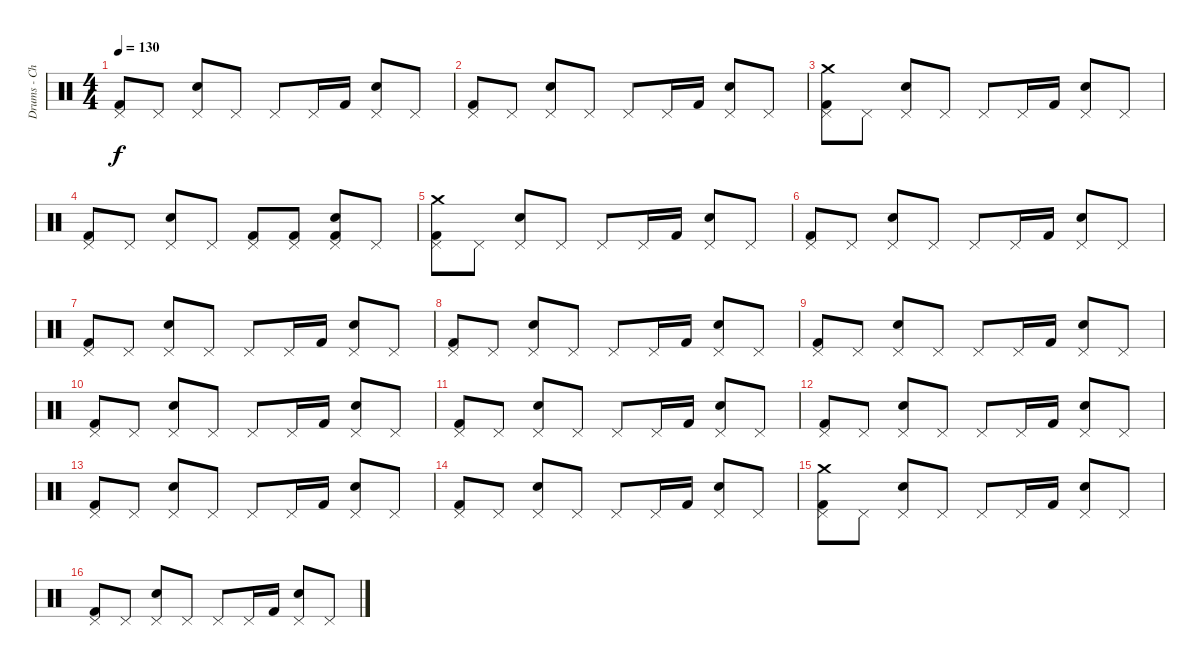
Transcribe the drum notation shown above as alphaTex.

\track ("Drums - Christoph Schneider" "Drums - Ch") {instrument percussion}
\staff {score}
\articulation defaults
\ts (4 4)
\tempo 130
\clef neutral
\ks c
("Pedal Hi-Hat (hit)" "Kick (hit) 2").8{dy f} "Pedal Hi-Hat (hit)".8 ("Pedal Hi-Hat (hit)" "Electric Snare (hit)").8 "Pedal Hi-Hat (hit)".8 "Pedal Hi-Hat (hit)".8 "Pedal Hi-Hat (hit)".16 "Kick (hit) 2".16 ("Pedal Hi-Hat (hit)" "Electric Snare (hit)").8 "Pedal Hi-Hat (hit)".8 |
("Pedal Hi-Hat (hit)" "Kick (hit) 2").8 "Pedal Hi-Hat (hit)".8 ("Pedal Hi-Hat (hit)" "Electric Snare (hit)").8 "Pedal Hi-Hat (hit)".8 "Pedal Hi-Hat (hit)".8 "Pedal Hi-Hat (hit)".16 "Kick (hit) 2".16 ("Pedal Hi-Hat (hit)" "Electric Snare (hit)").8 "Pedal Hi-Hat (hit)".8 |
("Crash medium (hit)" "Pedal Hi-Hat (hit)" "Kick (hit) 2").8 "Pedal Hi-Hat (hit)".8 ("Pedal Hi-Hat (hit)" "Electric Snare (hit)").8 "Pedal Hi-Hat (hit)".8 "Pedal Hi-Hat (hit)".8 "Pedal Hi-Hat (hit)".16 "Kick (hit) 2".16 ("Pedal Hi-Hat (hit)" "Electric Snare (hit)").8 "Pedal Hi-Hat (hit)".8 |
("Pedal Hi-Hat (hit)" "Kick (hit) 2").8 "Pedal Hi-Hat (hit)".8 ("Pedal Hi-Hat (hit)" "Electric Snare (hit)").8 "Pedal Hi-Hat (hit)".8 ("Pedal Hi-Hat (hit)" "Kick (hit) 2").8 ("Pedal Hi-Hat (hit)" "Kick (hit) 2").8 ("Pedal Hi-Hat (hit)" "Electric Snare (hit)" "Kick (hit) 2").8 "Pedal Hi-Hat (hit)".8 |
("Crash medium (hit)" "Pedal Hi-Hat (hit)" "Kick (hit) 2").8 "Pedal Hi-Hat (hit)".8 ("Pedal Hi-Hat (hit)" "Electric Snare (hit)").8 "Pedal Hi-Hat (hit)".8 "Pedal Hi-Hat (hit)".8 "Pedal Hi-Hat (hit)".16 "Kick (hit) 2".16 ("Pedal Hi-Hat (hit)" "Electric Snare (hit)").8 "Pedal Hi-Hat (hit)".8 |
("Pedal Hi-Hat (hit)" "Kick (hit) 2").8 "Pedal Hi-Hat (hit)".8 ("Pedal Hi-Hat (hit)" "Electric Snare (hit)").8 "Pedal Hi-Hat (hit)".8 "Pedal Hi-Hat (hit)".8 "Pedal Hi-Hat (hit)".16 "Kick (hit) 2".16 ("Pedal Hi-Hat (hit)" "Electric Snare (hit)").8 "Pedal Hi-Hat (hit)".8 |
("Pedal Hi-Hat (hit)" "Kick (hit) 2").8 "Pedal Hi-Hat (hit)".8 ("Pedal Hi-Hat (hit)" "Electric Snare (hit)").8 "Pedal Hi-Hat (hit)".8 "Pedal Hi-Hat (hit)".8 "Pedal Hi-Hat (hit)".16 "Kick (hit) 2".16 ("Pedal Hi-Hat (hit)" "Electric Snare (hit)").8 "Pedal Hi-Hat (hit)".8 |
("Pedal Hi-Hat (hit)" "Kick (hit) 2").8 "Pedal Hi-Hat (hit)".8 ("Pedal Hi-Hat (hit)" "Electric Snare (hit)").8 "Pedal Hi-Hat (hit)".8 "Pedal Hi-Hat (hit)".8 "Pedal Hi-Hat (hit)".16 "Kick (hit) 2".16 ("Pedal Hi-Hat (hit)" "Electric Snare (hit)").8 "Pedal Hi-Hat (hit)".8 |
("Pedal Hi-Hat (hit)" "Kick (hit) 2").8 "Pedal Hi-Hat (hit)".8 ("Pedal Hi-Hat (hit)" "Electric Snare (hit)").8 "Pedal Hi-Hat (hit)".8 "Pedal Hi-Hat (hit)".8 "Pedal Hi-Hat (hit)".16 "Kick (hit) 2".16 ("Pedal Hi-Hat (hit)" "Electric Snare (hit)").8 "Pedal Hi-Hat (hit)".8 |
("Pedal Hi-Hat (hit)" "Kick (hit) 2").8 "Pedal Hi-Hat (hit)".8 ("Pedal Hi-Hat (hit)" "Electric Snare (hit)").8 "Pedal Hi-Hat (hit)".8 "Pedal Hi-Hat (hit)".8 "Pedal Hi-Hat (hit)".16 "Kick (hit) 2".16 ("Pedal Hi-Hat (hit)" "Electric Snare (hit)").8 "Pedal Hi-Hat (hit)".8 |
("Pedal Hi-Hat (hit)" "Kick (hit) 2").8 "Pedal Hi-Hat (hit)".8 ("Pedal Hi-Hat (hit)" "Electric Snare (hit)").8 "Pedal Hi-Hat (hit)".8 "Pedal Hi-Hat (hit)".8 "Pedal Hi-Hat (hit)".16 "Kick (hit) 2".16 ("Pedal Hi-Hat (hit)" "Electric Snare (hit)").8 "Pedal Hi-Hat (hit)".8 |
("Pedal Hi-Hat (hit)" "Kick (hit) 2").8 "Pedal Hi-Hat (hit)".8 ("Pedal Hi-Hat (hit)" "Electric Snare (hit)").8 "Pedal Hi-Hat (hit)".8 "Pedal Hi-Hat (hit)".8 "Pedal Hi-Hat (hit)".16 "Kick (hit) 2".16 ("Pedal Hi-Hat (hit)" "Electric Snare (hit)").8 "Pedal Hi-Hat (hit)".8 |
("Pedal Hi-Hat (hit)" "Kick (hit) 2").8 "Pedal Hi-Hat (hit)".8 ("Pedal Hi-Hat (hit)" "Electric Snare (hit)").8 "Pedal Hi-Hat (hit)".8 "Pedal Hi-Hat (hit)".8 "Pedal Hi-Hat (hit)".16 "Kick (hit) 2".16 ("Pedal Hi-Hat (hit)" "Electric Snare (hit)").8 "Pedal Hi-Hat (hit)".8 |
("Pedal Hi-Hat (hit)" "Kick (hit) 2").8 "Pedal Hi-Hat (hit)".8 ("Pedal Hi-Hat (hit)" "Electric Snare (hit)").8 "Pedal Hi-Hat (hit)".8 "Pedal Hi-Hat (hit)".8 "Pedal Hi-Hat (hit)".16 "Kick (hit) 2".16 ("Pedal Hi-Hat (hit)" "Electric Snare (hit)").8 "Pedal Hi-Hat (hit)".8 |
("Crash medium (hit)" "Pedal Hi-Hat (hit)" "Kick (hit) 2").8 "Pedal Hi-Hat (hit)".8 ("Pedal Hi-Hat (hit)" "Electric Snare (hit)").8 "Pedal Hi-Hat (hit)".8 "Pedal Hi-Hat (hit)".8 "Pedal Hi-Hat (hit)".16 "Kick (hit) 2".16 ("Pedal Hi-Hat (hit)" "Electric Snare (hit)").8 "Pedal Hi-Hat (hit)".8 |
("Pedal Hi-Hat (hit)" "Kick (hit) 2").8 "Pedal Hi-Hat (hit)".8 ("Pedal Hi-Hat (hit)" "Electric Snare (hit)").8 "Pedal Hi-Hat (hit)".8 "Pedal Hi-Hat (hit)".8 "Pedal Hi-Hat (hit)".16 "Kick (hit) 2".16 ("Pedal Hi-Hat (hit)" "Electric Snare (hit)").8 "Pedal Hi-Hat (hit)".8
